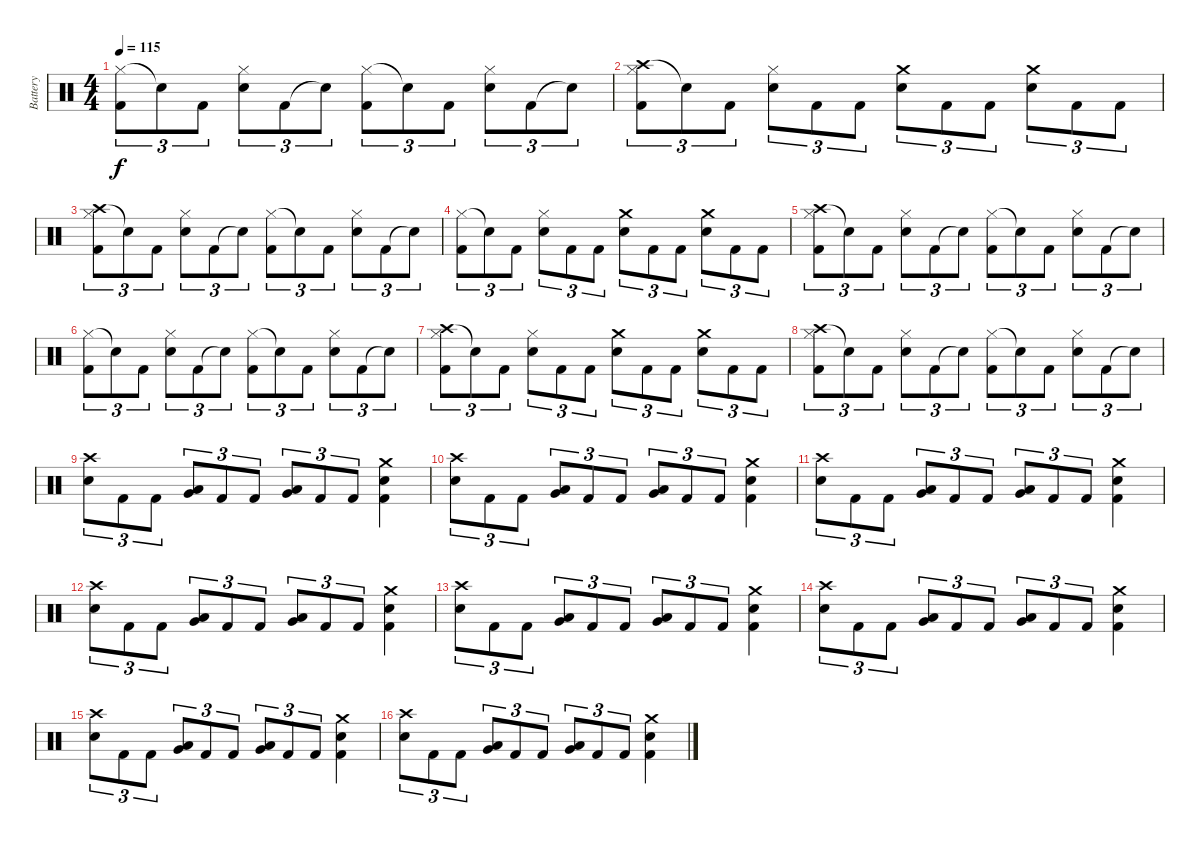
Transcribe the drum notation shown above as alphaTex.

\track ("Battery" "Battery") {instrument percussion}
\staff {score}
\articulation defaults
\ts (4 4)
\tempo 115
\clef neutral
\ks c
("Hi-Hat (closed)" "Kick (hit) 2").8{tu (3 2) dy f} "Snare (hit)"{t}.8{tu (3 2)} "Kick (hit) 2".8{tu (3 2)} ("Hi-Hat (closed)" "Electric Snare (hit)").8{tu (3 2)} "Kick (hit) 2".8{tu (3 2)} "Snare (hit)"{t}.8{tu (3 2)} ("Hi-Hat (closed)" "Kick (hit) 2").8{tu (3 2)} "Snare (hit)"{t}.8{tu (3 2)} "Kick (hit) 2".8{tu (3 2)} ("Hi-Hat (closed)" "Electric Snare (hit)").8{tu (3 2)} "Kick (hit) 2".8{tu (3 2)} "Snare (hit)"{t}.8{tu (3 2)} |
("Crash high (hit)" "Hi-Hat (closed)" "Kick (hit) 2").8{tu (3 2)} "Snare (hit)"{t}.8{tu (3 2)} "Kick (hit) 2".8{tu (3 2)} ("Hi-Hat (closed)" "Electric Snare (hit)").8{tu (3 2)} "Kick (hit) 2".8{tu (3 2)} "Kick (hit) 2".8{tu (3 2)} ("Crash medium (hit)" "Electric Snare (hit)").8{tu (3 2)} "Kick (hit) 2".8{tu (3 2)} "Kick (hit) 2".8{tu (3 2)} ("Crash medium (hit)" "Electric Snare (hit)").8{tu (3 2)} "Kick (hit) 2".8{tu (3 2)} "Kick (hit) 2".8{tu (3 2)} |
("Crash high (hit)" "Hi-Hat (closed)" "Kick (hit) 2").8{tu (3 2)} "Snare (hit)"{t}.8{tu (3 2)} "Kick (hit) 2".8{tu (3 2)} ("Hi-Hat (closed)" "Electric Snare (hit)").8{tu (3 2)} "Kick (hit) 2".8{tu (3 2)} "Snare (hit)"{t}.8{tu (3 2)} ("Hi-Hat (closed)" "Kick (hit) 2").8{tu (3 2)} "Snare (hit)"{t}.8{tu (3 2)} "Kick (hit) 2".8{tu (3 2)} ("Hi-Hat (closed)" "Electric Snare (hit)").8{tu (3 2)} "Kick (hit) 2".8{tu (3 2)} "Snare (hit)"{t}.8{tu (3 2)} |
("Hi-Hat (closed)" "Kick (hit) 2").8{tu (3 2)} "Snare (hit)"{t}.8{tu (3 2)} "Kick (hit) 2".8{tu (3 2)} ("Hi-Hat (closed)" "Electric Snare (hit)").8{tu (3 2)} "Kick (hit) 2".8{tu (3 2)} "Kick (hit) 2".8{tu (3 2)} ("Crash medium (hit)" "Electric Snare (hit)").8{tu (3 2)} "Kick (hit) 2".8{tu (3 2)} "Kick (hit) 2".8{tu (3 2)} ("Crash medium (hit)" "Electric Snare (hit)").8{tu (3 2)} "Kick (hit) 2".8{tu (3 2)} "Kick (hit) 2".8{tu (3 2)} |
("Crash high (hit)" "Hi-Hat (closed)" "Kick (hit) 2").8{tu (3 2)} "Snare (hit)"{t}.8{tu (3 2)} "Kick (hit) 2".8{tu (3 2)} ("Hi-Hat (closed)" "Electric Snare (hit)").8{tu (3 2)} "Kick (hit) 2".8{tu (3 2)} "Snare (hit)"{t}.8{tu (3 2)} ("Hi-Hat (closed)" "Kick (hit) 2").8{tu (3 2)} "Snare (hit)"{t}.8{tu (3 2)} "Kick (hit) 2".8{tu (3 2)} ("Hi-Hat (closed)" "Electric Snare (hit)").8{tu (3 2)} "Kick (hit) 2".8{tu (3 2)} "Snare (hit)"{t}.8{tu (3 2)} |
("Hi-Hat (closed)" "Kick (hit) 2").8{tu (3 2)} "Snare (hit)"{t}.8{tu (3 2)} "Kick (hit) 2".8{tu (3 2)} ("Hi-Hat (closed)" "Electric Snare (hit)").8{tu (3 2)} "Kick (hit) 2".8{tu (3 2)} "Snare (hit)"{t}.8{tu (3 2)} ("Hi-Hat (closed)" "Kick (hit) 2").8{tu (3 2)} "Snare (hit)"{t}.8{tu (3 2)} "Kick (hit) 2".8{tu (3 2)} ("Hi-Hat (closed)" "Electric Snare (hit)").8{tu (3 2)} "Kick (hit) 2".8{tu (3 2)} "Snare (hit)"{t}.8{tu (3 2)} |
("Crash high (hit)" "Hi-Hat (closed)" "Kick (hit) 2").8{tu (3 2)} "Snare (hit)"{t}.8{tu (3 2)} "Kick (hit) 2".8{tu (3 2)} ("Hi-Hat (closed)" "Electric Snare (hit)").8{tu (3 2)} "Kick (hit) 2".8{tu (3 2)} "Kick (hit) 2".8{tu (3 2)} ("Crash medium (hit)" "Electric Snare (hit)").8{tu (3 2)} "Kick (hit) 2".8{tu (3 2)} "Kick (hit) 2".8{tu (3 2)} ("Crash medium (hit)" "Electric Snare (hit)").8{tu (3 2)} "Kick (hit) 2".8{tu (3 2)} "Kick (hit) 2".8{tu (3 2)} |
("Crash high (hit)" "Hi-Hat (closed)" "Kick (hit) 2").8{tu (3 2)} "Snare (hit)"{t}.8{tu (3 2)} "Kick (hit) 2".8{tu (3 2)} ("Hi-Hat (closed)" "Electric Snare (hit)").8{tu (3 2)} "Kick (hit) 2".8{tu (3 2)} "Snare (hit)"{t}.8{tu (3 2)} ("Hi-Hat (closed)" "Kick (hit) 2").8{tu (3 2)} "Snare (hit)"{t}.8{tu (3 2)} "Kick (hit) 2".8{tu (3 2)} ("Hi-Hat (closed)" "Electric Snare (hit)").8{tu (3 2)} "Kick (hit) 2".8{tu (3 2)} "Snare (hit)"{t}.8{tu (3 2)} |
("Crash high (hit)" "Electric Snare (hit)").8{tu (3 2)} "Kick (hit) 2".8{tu (3 2)} "Kick (hit) 2".8{tu (3 2)} ("Very Low Tom (hit)" "Low Tom (hit)").8{tu (3 2)} "Kick (hit) 2".8{tu (3 2)} "Kick (hit) 2".8{tu (3 2)} ("Very Low Tom (hit)" "Low Tom (hit)").8{tu (3 2)} "Kick (hit) 2".8{tu (3 2)} "Kick (hit) 2".8{tu (3 2)} ("Crash medium (hit)" "Electric Snare (hit)" "Kick (hit) 2").4 |
("Crash high (hit)" "Electric Snare (hit)").8{tu (3 2)} "Kick (hit) 2".8{tu (3 2)} "Kick (hit) 2".8{tu (3 2)} ("Very Low Tom (hit)" "Low Tom (hit)").8{tu (3 2)} "Kick (hit) 2".8{tu (3 2)} "Kick (hit) 2".8{tu (3 2)} ("Very Low Tom (hit)" "Low Tom (hit)").8{tu (3 2)} "Kick (hit) 2".8{tu (3 2)} "Kick (hit) 2".8{tu (3 2)} ("Crash medium (hit)" "Electric Snare (hit)" "Kick (hit) 2").4 |
("Crash high (hit)" "Electric Snare (hit)").8{tu (3 2)} "Kick (hit) 2".8{tu (3 2)} "Kick (hit) 2".8{tu (3 2)} ("Very Low Tom (hit)" "Low Tom (hit)").8{tu (3 2)} "Kick (hit) 2".8{tu (3 2)} "Kick (hit) 2".8{tu (3 2)} ("Very Low Tom (hit)" "Low Tom (hit)").8{tu (3 2)} "Kick (hit) 2".8{tu (3 2)} "Kick (hit) 2".8{tu (3 2)} ("Crash medium (hit)" "Electric Snare (hit)" "Kick (hit) 2").4 |
("Crash high (hit)" "Electric Snare (hit)").8{tu (3 2)} "Kick (hit) 2".8{tu (3 2)} "Kick (hit) 2".8{tu (3 2)} ("Very Low Tom (hit)" "Low Tom (hit)").8{tu (3 2)} "Kick (hit) 2".8{tu (3 2)} "Kick (hit) 2".8{tu (3 2)} ("Very Low Tom (hit)" "Low Tom (hit)").8{tu (3 2)} "Kick (hit) 2".8{tu (3 2)} "Kick (hit) 2".8{tu (3 2)} ("Crash medium (hit)" "Electric Snare (hit)" "Kick (hit) 2").4 |
("Crash high (hit)" "Electric Snare (hit)").8{tu (3 2)} "Kick (hit) 2".8{tu (3 2)} "Kick (hit) 2".8{tu (3 2)} ("Very Low Tom (hit)" "Low Tom (hit)").8{tu (3 2)} "Kick (hit) 2".8{tu (3 2)} "Kick (hit) 2".8{tu (3 2)} ("Very Low Tom (hit)" "Low Tom (hit)").8{tu (3 2)} "Kick (hit) 2".8{tu (3 2)} "Kick (hit) 2".8{tu (3 2)} ("Crash medium (hit)" "Electric Snare (hit)" "Kick (hit) 2").4 |
("Crash high (hit)" "Electric Snare (hit)").8{tu (3 2)} "Kick (hit) 2".8{tu (3 2)} "Kick (hit) 2".8{tu (3 2)} ("Very Low Tom (hit)" "Low Tom (hit)").8{tu (3 2)} "Kick (hit) 2".8{tu (3 2)} "Kick (hit) 2".8{tu (3 2)} ("Very Low Tom (hit)" "Low Tom (hit)").8{tu (3 2)} "Kick (hit) 2".8{tu (3 2)} "Kick (hit) 2".8{tu (3 2)} ("Crash medium (hit)" "Electric Snare (hit)" "Kick (hit) 2").4 |
("Crash high (hit)" "Electric Snare (hit)").8{tu (3 2)} "Kick (hit) 2".8{tu (3 2)} "Kick (hit) 2".8{tu (3 2)} ("Very Low Tom (hit)" "Low Tom (hit)").8{tu (3 2)} "Kick (hit) 2".8{tu (3 2)} "Kick (hit) 2".8{tu (3 2)} ("Very Low Tom (hit)" "Low Tom (hit)").8{tu (3 2)} "Kick (hit) 2".8{tu (3 2)} "Kick (hit) 2".8{tu (3 2)} ("Crash medium (hit)" "Electric Snare (hit)" "Kick (hit) 2").4 |
("Crash high (hit)" "Electric Snare (hit)").8{tu (3 2)} "Kick (hit) 2".8{tu (3 2)} "Kick (hit) 2".8{tu (3 2)} ("Very Low Tom (hit)" "Low Tom (hit)").8{tu (3 2)} "Kick (hit) 2".8{tu (3 2)} "Kick (hit) 2".8{tu (3 2)} ("Very Low Tom (hit)" "Low Tom (hit)").8{tu (3 2)} "Kick (hit) 2".8{tu (3 2)} "Kick (hit) 2".8{tu (3 2)} ("Crash medium (hit)" "Electric Snare (hit)" "Kick (hit) 2").4
